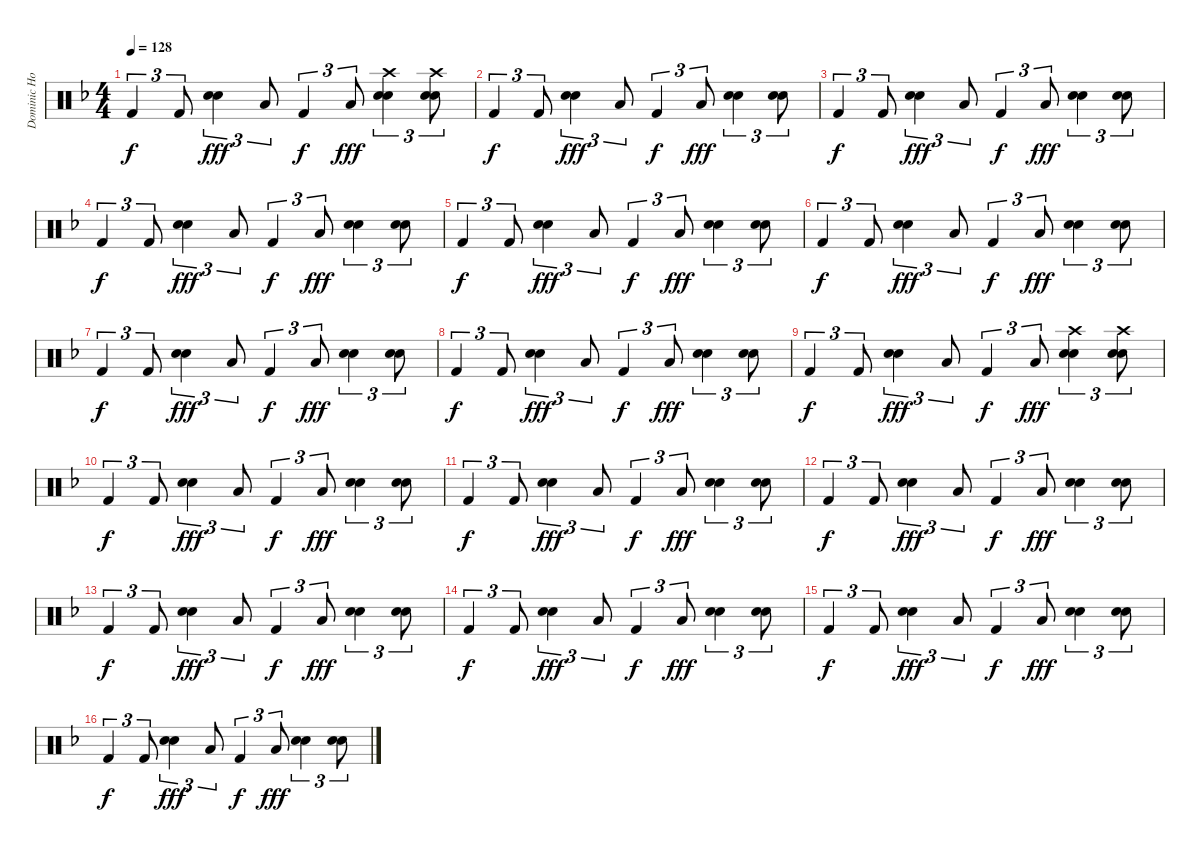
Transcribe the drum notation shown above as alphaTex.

\track ("Dominic Howard Drums" "Dominic Ho") {instrument percussion}
\staff {score}
\articulation defaults
\ts (4 4)
\tempo 128
\clef neutral
\ks dminor "Kick (hit) 2".4{tu (3 2) dy f} "Kick (hit) 2".8{tu (3 2)}
("Electric Snare (hit)" "Snare (hit) 2").4{tu (3 2) dy fff} "Low Floor Tom (hit)".8{tu (3 2)} "Kick (hit) 2".4{tu (3 2) dy f} "Low Floor Tom (hit)".8{tu (3 2) dy fff} ("Crash high (hit)" "Hand Clap (hit)" "Snare (hit) 2").4{tu (3 2)} ("Crash high (hit)" "Hand Clap (hit)" "Snare (hit) 2").8{tu (3 2)} |
"Kick (hit) 2".4{tu (3 2) dy f} "Kick (hit) 2".8{tu (3 2)} ("Electric Snare (hit)" "Snare (hit) 2").4{tu (3 2) dy fff} "Low Floor Tom (hit)".8{tu (3 2)} "Kick (hit) 2".4{tu (3 2) dy f} "Low Floor Tom (hit)".8{tu (3 2) dy fff} ("Hand Clap (hit)" "Snare (hit) 2").4{tu (3 2)} ("Hand Clap (hit)" "Snare (hit) 2").8{tu (3 2)} |
"Kick (hit) 2".4{tu (3 2) dy f} "Kick (hit) 2".8{tu (3 2)} ("Electric Snare (hit)" "Snare (hit) 2").4{tu (3 2) dy fff} "Low Floor Tom (hit)".8{tu (3 2)} "Kick (hit) 2".4{tu (3 2) dy f} "Low Floor Tom (hit)".8{tu (3 2) dy fff} ("Hand Clap (hit)" "Snare (hit) 2").4{tu (3 2)} ("Hand Clap (hit)" "Snare (hit) 2").8{tu (3 2)} |
"Kick (hit) 2".4{tu (3 2) dy f} "Kick (hit) 2".8{tu (3 2)} ("Electric Snare (hit)" "Snare (hit) 2").4{tu (3 2) dy fff} "Low Floor Tom (hit)".8{tu (3 2)} "Kick (hit) 2".4{tu (3 2) dy f} "Low Floor Tom (hit)".8{tu (3 2) dy fff} ("Hand Clap (hit)" "Snare (hit) 2").4{tu (3 2)} ("Hand Clap (hit)" "Snare (hit) 2").8{tu (3 2)} |
"Kick (hit) 2".4{tu (3 2) dy f} "Kick (hit) 2".8{tu (3 2)} ("Electric Snare (hit)" "Snare (hit) 2").4{tu (3 2) dy fff} "Low Floor Tom (hit)".8{tu (3 2)} "Kick (hit) 2".4{tu (3 2) dy f} "Low Floor Tom (hit)".8{tu (3 2) dy fff} ("Hand Clap (hit)" "Snare (hit) 2").4{tu (3 2)} ("Hand Clap (hit)" "Snare (hit) 2").8{tu (3 2)} |
"Kick (hit) 2".4{tu (3 2) dy f} "Kick (hit) 2".8{tu (3 2)} ("Electric Snare (hit)" "Snare (hit) 2").4{tu (3 2) dy fff} "Low Floor Tom (hit)".8{tu (3 2)} "Kick (hit) 2".4{tu (3 2) dy f} "Low Floor Tom (hit)".8{tu (3 2) dy fff} ("Hand Clap (hit)" "Snare (hit) 2").4{tu (3 2)} ("Hand Clap (hit)" "Snare (hit) 2").8{tu (3 2)} |
"Kick (hit) 2".4{tu (3 2) dy f} "Kick (hit) 2".8{tu (3 2)} ("Electric Snare (hit)" "Snare (hit) 2").4{tu (3 2) dy fff} "Low Floor Tom (hit)".8{tu (3 2)} "Kick (hit) 2".4{tu (3 2) dy f} "Low Floor Tom (hit)".8{tu (3 2) dy fff} ("Hand Clap (hit)" "Snare (hit) 2").4{tu (3 2)} ("Hand Clap (hit)" "Snare (hit) 2").8{tu (3 2)} |
"Kick (hit) 2".4{tu (3 2) dy f} "Kick (hit) 2".8{tu (3 2)} ("Electric Snare (hit)" "Snare (hit) 2").4{tu (3 2) dy fff} "Low Floor Tom (hit)".8{tu (3 2)} "Kick (hit) 2".4{tu (3 2) dy f} "Low Floor Tom (hit)".8{tu (3 2) dy fff} ("Hand Clap (hit)" "Snare (hit) 2").4{tu (3 2)} ("Hand Clap (hit)" "Snare (hit) 2").8{tu (3 2)} |
"Kick (hit) 2".4{tu (3 2) dy f} "Kick (hit) 2".8{tu (3 2)} ("Electric Snare (hit)" "Snare (hit) 2").4{tu (3 2) dy fff} "Low Floor Tom (hit)".8{tu (3 2)} "Kick (hit) 2".4{tu (3 2) dy f} "Low Floor Tom (hit)".8{tu (3 2) dy fff} ("Crash high (hit)" "Hand Clap (hit)" "Snare (hit) 2").4{tu (3 2)} ("Crash high (hit)" "Hand Clap (hit)" "Snare (hit) 2").8{tu (3 2)} |
"Kick (hit) 2".4{tu (3 2) dy f} "Kick (hit) 2".8{tu (3 2)} ("Electric Snare (hit)" "Snare (hit) 2").4{tu (3 2) dy fff} "Low Floor Tom (hit)".8{tu (3 2)} "Kick (hit) 2".4{tu (3 2) dy f} "Low Floor Tom (hit)".8{tu (3 2) dy fff} ("Hand Clap (hit)" "Snare (hit) 2").4{tu (3 2)} ("Hand Clap (hit)" "Snare (hit) 2").8{tu (3 2)} |
"Kick (hit) 2".4{tu (3 2) dy f} "Kick (hit) 2".8{tu (3 2)} ("Electric Snare (hit)" "Snare (hit) 2").4{tu (3 2) dy fff} "Low Floor Tom (hit)".8{tu (3 2)} "Kick (hit) 2".4{tu (3 2) dy f} "Low Floor Tom (hit)".8{tu (3 2) dy fff} ("Hand Clap (hit)" "Snare (hit) 2").4{tu (3 2)} ("Hand Clap (hit)" "Snare (hit) 2").8{tu (3 2)} |
"Kick (hit) 2".4{tu (3 2) dy f} "Kick (hit) 2".8{tu (3 2)} ("Electric Snare (hit)" "Snare (hit) 2").4{tu (3 2) dy fff} "Low Floor Tom (hit)".8{tu (3 2)} "Kick (hit) 2".4{tu (3 2) dy f} "Low Floor Tom (hit)".8{tu (3 2) dy fff} ("Hand Clap (hit)" "Snare (hit) 2").4{tu (3 2)} ("Hand Clap (hit)" "Snare (hit) 2").8{tu (3 2)} |
"Kick (hit) 2".4{tu (3 2) dy f} "Kick (hit) 2".8{tu (3 2)} ("Electric Snare (hit)" "Snare (hit) 2").4{tu (3 2) dy fff} "Low Floor Tom (hit)".8{tu (3 2)} "Kick (hit) 2".4{tu (3 2) dy f} "Low Floor Tom (hit)".8{tu (3 2) dy fff} ("Hand Clap (hit)" "Snare (hit) 2").4{tu (3 2)} ("Hand Clap (hit)" "Snare (hit) 2").8{tu (3 2)} |
"Kick (hit) 2".4{tu (3 2) dy f} "Kick (hit) 2".8{tu (3 2)} ("Electric Snare (hit)" "Snare (hit) 2").4{tu (3 2) dy fff} "Low Floor Tom (hit)".8{tu (3 2)} "Kick (hit) 2".4{tu (3 2) dy f} "Low Floor Tom (hit)".8{tu (3 2) dy fff} ("Hand Clap (hit)" "Snare (hit) 2").4{tu (3 2)} ("Hand Clap (hit)" "Snare (hit) 2").8{tu (3 2)} |
"Kick (hit) 2".4{tu (3 2) dy f} "Kick (hit) 2".8{tu (3 2)} ("Electric Snare (hit)" "Snare (hit) 2").4{tu (3 2) dy fff} "Low Floor Tom (hit)".8{tu (3 2)} "Kick (hit) 2".4{tu (3 2) dy f} "Low Floor Tom (hit)".8{tu (3 2) dy fff} ("Hand Clap (hit)" "Snare (hit) 2").4{tu (3 2)} ("Hand Clap (hit)" "Snare (hit) 2").8{tu (3 2)} |
"Kick (hit) 2".4{tu (3 2) dy f} "Kick (hit) 2".8{tu (3 2)} ("Electric Snare (hit)" "Snare (hit) 2").4{tu (3 2) dy fff} "Low Floor Tom (hit)".8{tu (3 2)} "Kick (hit) 2".4{tu (3 2) dy f} "Low Floor Tom (hit)".8{tu (3 2) dy fff} ("Hand Clap (hit)" "Snare (hit) 2").4{tu (3 2)} ("Hand Clap (hit)" "Snare (hit) 2").8{tu (3 2)}
